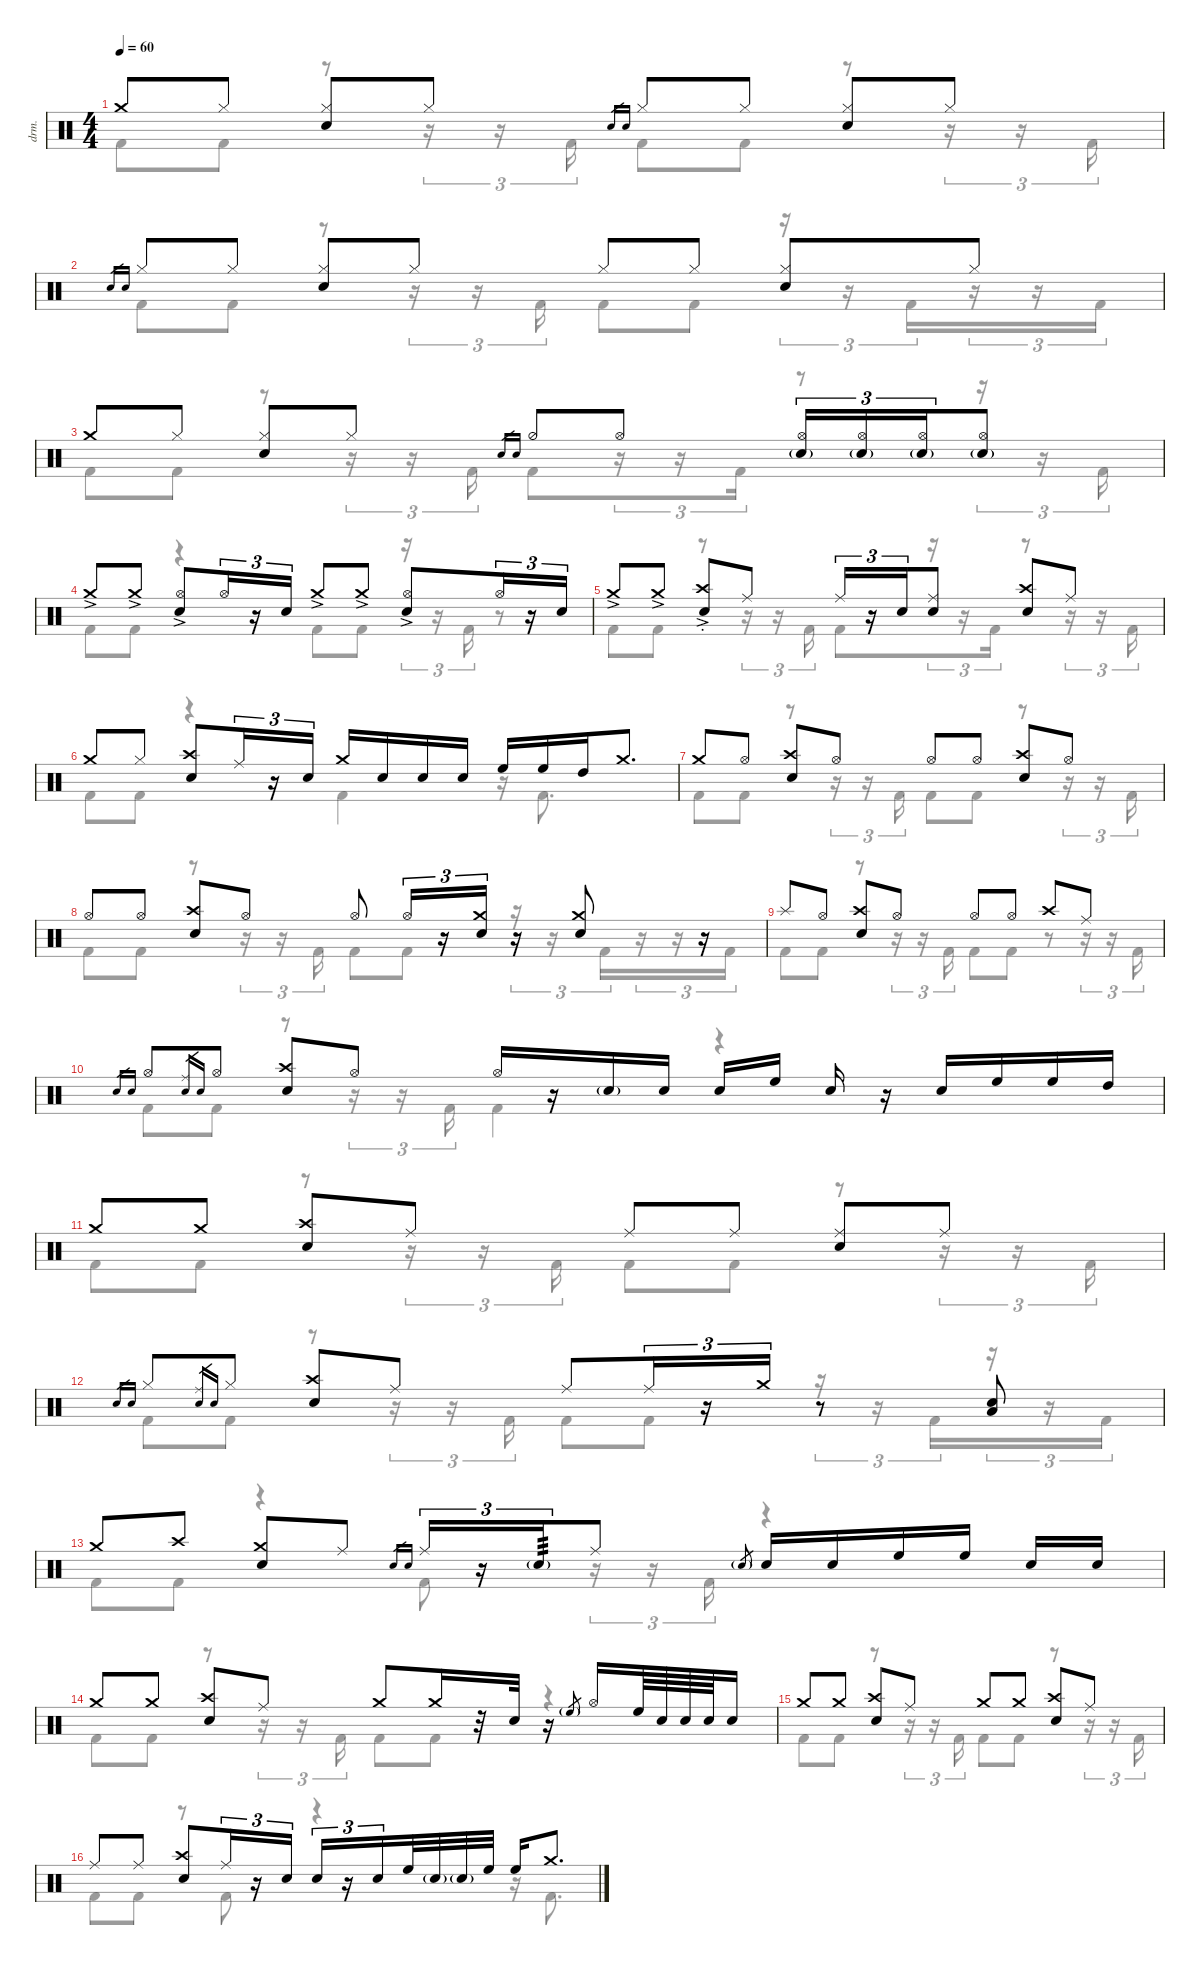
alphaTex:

\defaultSystemsLayout 4
\hideDynamics
\bracketExtendMode nobrackets
\track ("Drums" "drm.") {instrument percussion}
\staff {score}
\articulation defaults
\voice
\ts (4 4)
\tempo 60
\clef neutral
\scale
0.488794
\ks c "Crash medium (hit)".8{dy mf} "Hi-Hat (closed)".8
("Hi-Hat (closed)" "Snare (hit) 2").8 "Hi-Hat (closed)".8 "Snare (hit) 2".16{gr} "Snare (hit) 2".16{gr} "Hi-Hat (closed)".8 "Hi-Hat (closed)".8 ("Hi-Hat (closed)" "Snare (hit) 2").8 "Hi-Hat (closed)".8 |
"Snare (hit) 2".16{gr} "Snare (hit) 2".16{gr} "Hi-Hat (closed)".8 "Hi-Hat (closed)".8 ("Hi-Hat (closed)" "Snare (hit) 2").8 "Hi-Hat (closed)".8 "Hi-Hat (closed)".8 "Hi-Hat (closed)".8 ("Hi-Hat (closed)" "Snare (hit) 2").8 "Hi-Hat (closed)".8 |
"Crash medium (hit)".8 "Hi-Hat (closed)".8 ("Hi-Hat (closed)" "Snare (hit) 2").8 "Hi-Hat (closed)".8 "Snare (hit) 2".16{gr} "Snare (hit) 2".16{gr} "Hi-Hat (half)".8 "Hi-Hat (open)".8 ("Hi-Hat (open)" "Snare (hit) 2"{g}).16{tu (3 2)} ("Hi-Hat (open)" "Snare (hit) 2"{g}).16{tu (3 2)} ("Hi-Hat (open)" "Snare (hit) 2"{g}).16{tu (3 2) beam merge} ("Snare (hit) 2"{g} "Hi-Hat (open)").8 |
"Crash medium (hit)"{ac}.8 "Crash medium (hit)"{ac}.8 ("Hi-Hat (open)" "Snare (hit) 2"{ac}).8{beam merge} "Hi-Hat (open)".16{tu (3 2)} r.16{tu (3 2)} "Snare (hit) 2".16{tu (3 2)} "Crash medium (hit)"{ac}.8 "Crash medium (hit)"{ac}.8 ("Hi-Hat (open)" "Snare (hit) 2"{ac}).8{beam merge} "Hi-Hat (open)".16{tu (3 2)} r.16{tu (3 2)} "Snare (hit) 2".16{tu (3 2)} |
"Crash medium (hit)"{ac}.8 "Crash medium (hit)"{ac}.8 ("Snare (hit) 2"{ac} "Crash high (choke)").8{beam merge} "Ride (middle)".8 "Ride (middle)".16{tu (3 2)} r.16{tu (3 2)} "Snare (hit) 2".16{tu (3 2) beam merge} ("Snare (hit) 2" "Ride (middle)").8 ("Crash high (hit)" "Snare (hit) 2").8 "Ride (middle)".8 |
\scale
0.511205 "Crash medium (hit)".8 "Hi-Hat (closed)".8 ("Crash high (hit)" "Snare (hit) 2").8{beam merge} "Ride (middle)".16{tu (3 2)} r.16{tu (3 2)} "Snare (hit) 2".16{tu (3 2)} "Crash medium (hit)".16 "Snare (hit) 2".16 "Snare (hit) 2".16 "Snare (hit) 2".16 "High Floor Tom (hit)".16 "High Floor Tom (hit)".16 "High Tom (hit)".16 "Crash medium (hit)".8{d} |
\scale
0.488795 "Crash medium (hit)".8 "Hi-Hat (open)".8 ("Crash high (hit)" "Snare (hit) 2").8 "Hi-Hat (open)".8 "Hi-Hat (open)".8 "Hi-Hat (open)".8 ("Crash high (hit)" "Snare (hit) 2").8 "Hi-Hat (open)".8 |
\scale
0.511207 "Hi-Hat (open)".8 "Hi-Hat (open)".8 ("Crash high (hit)" "Snare (hit) 2").8 "Hi-Hat (open)".8 "Hi-Hat (open)".8 "Hi-Hat (open)".16{tu (3 2)} r.16{tu (3 2)} ("Crash medium (hit)" "Snare (hit) 2").16{tu (3 2)} r.16 ("Crash medium (hit)" "Snare (hit) 2").8 r.16 |
\scale
0.488793 "Splash (hit)".8 "Hi-Hat (open)".8 ("Crash high (hit)" "Snare (hit) 2").8 "Hi-Hat (open)".8 "Hi-Hat (open)".8 "Hi-Hat (open)".8 "Crash high (hit)".8 "Ride (middle)".8 |
\scale
0.511205 "Snare (hit) 2".16{gr} "Snare (hit) 2".16{gr} "Hi-Hat (open)".8 ("Snare (hit) 2" "Ride (middle)").16{gr} "Snare (hit) 2".16{gr} "Hi-Hat (open)".8 ("Crash high (hit)" "Snare (hit) 2").8 "Hi-Hat (open)".8 "Hi-Hat (open)".16 r.16 "Snare (hit) 2"{g}.16 "Snare (hit) 2".16 "Snare (hit) 2".16 "High Floor Tom (hit)".16{beam split} "Snare (hit) 2".16 r.16 "Snare (hit) 2".16 "High Floor Tom (hit)".16 "High Floor Tom (hit)".16 "High Tom (hit)".16 |
\scale
0.488795 "Crash medium (hit)".8 "Crash medium (hit)".8 ("Crash high (hit)" "Snare (hit) 2").8 "Ride (middle)".8 "Ride (middle)".8 "Ride (middle)".8 ("Ride (middle)" "Snare (hit) 2").8 "Ride (middle)".8 |
\scale
0.511207 "Snare (hit) 2".16{gr} "Snare (hit) 2".16{gr} "Hi-Hat (closed)".8 ("Snare (hit) 2" "Ride (middle)").16{gr} "Snare (hit) 2".16{gr} "Hi-Hat (closed)".8 ("Crash high (hit)" "Snare (hit) 2").8 "Ride (middle)".8 "Ride (middle)".8{beam merge} "Ride (middle)".16{tu (3 2)} r.16{tu (3 2)} "Crash medium (hit)".16{tu (3 2)} r.8 ("Snare (hit) 2" "Low Tom (hit)").8 |
\scale
0.488793 "Crash medium (hit)".8 "Crash high (hit)".8 ("Crash medium (hit)" "Snare (hit) 2").8 "Ride (middle)".8 "Snare (hit) 2".16{gr} "Snare (hit) 2".16{gr} "Ride (middle)".16{tu (3 2)} r.16{tu (3 2)} "Snare (hit) 2"{g}.16{tu (3 2) tp 3 beam merge} "Ride (middle)".8 "Snare (hit) 2"{g}.8{gr} "Snare (hit) 2".16 "Snare (hit) 2".16 "High Floor Tom (hit)".16 "High Floor Tom (hit)".16 "Snare (hit) 2".16 "Snare (hit) 2".16 |
\scale
0.368199 "Crash medium (hit)".8 "Crash medium (hit)".8 ("Crash high (hit)" "Snare (hit) 2").8 "Ride (middle)".8 "Crash medium (hit)".8 "Crash medium (hit)".16 r.32 "Snare (hit) 2".32 r.16 "High Floor Tom (hit)"{g}.8{gr} "Hi-Hat (open)".16 "High Floor Tom (hit)".64 "Snare (hit) 2".64 "Snare (hit) 2".64 "Snare (hit) 2".64 "Snare (hit) 2".16 |
\scale
0.275373 "Crash medium (hit)".8 "Crash medium (hit)".8 ("Crash high (hit)" "Snare (hit) 2").8 "Ride (middle)".8 "Crash medium (hit)".8 "Crash medium (hit)".8 ("Crash high (hit)" "Snare (hit) 2").8 "Ride (middle)".8 |
\scale
0.356428 "Ride (middle)".8 "Ride (middle)".8 ("Crash high (hit)" "Snare (hit) 2").8{beam merge} "Ride (middle)".16{tu (3 2)} r.16{tu (3 2)} "Snare (hit) 2".16{tu (3 2)} "Snare (hit) 2".16{tu (3 2)} r.16{tu (3 2)} "Snare (hit) 2".16{tu (3 2) beam merge} "High Floor Tom (hit)".32 "Snare (hit) 2"{g}.32 "Snare (hit) 2"{g}.32 "High Floor Tom (hit)".32 "High Floor Tom (hit)".16 "Crash medium (hit)".8{d}
\voice
\clef neutral
\ottava regular
\simile none
\scale
0.488794
\ks c "Kick (hit) 2".8{dy mf} "Kick (hit) 2".8
r.8 r.16{tu (3 2)} r.16{tu (3 2)} "Kick (hit) 2".16{tu (3 2)} "Kick (hit) 2".8 "Kick (hit) 2".8 r.8 r.16{tu (3 2)} r.16{tu (3 2)} "Kick (hit) 2".16{tu (3 2)} |
"Kick (hit) 2".8 "Kick (hit) 2".8 r.8 r.16{tu (3 2)} r.16{tu (3 2)} "Kick (hit) 2".16{tu (3 2)} "Kick (hit) 2".8 "Kick (hit) 2".8 r.16{tu (3 2)} r.16{tu (3 2)} "Kick (hit) 2".16{tu (3 2) beam merge} r.16{tu (3 2) beam merge} r.16{tu (3 2) beam merge} "Kick (hit) 2".16{tu (3 2)} |
"Kick (hit) 2".8 "Kick (hit) 2".8 r.8 r.16{tu (3 2)} r.16{tu (3 2)} "Kick (hit) 2".16{tu (3 2)} "Kick (hit) 2".8{beam merge} r.16{tu (3 2) beam merge} r.16{tu (3 2) beam merge} "Kick (hit) 2".16{tu (3 2)} r.8 r.16{tu (3 2)} r.16{tu (3 2)} "Kick (hit) 2".16{tu (3 2)} |
"Kick (hit) 2".8 "Kick (hit) 2".8 r.4 "Kick (hit) 2".8 "Kick (hit) 2".8 r.16{tu (3 2)} r.16{tu (3 2)} "Kick (hit) 2".16{tu (3 2)} r.8 |
"Kick (hit) 2".8 "Kick (hit) 2".8 r.8 r.16{tu (3 2)} r.16{tu (3 2)} "Kick (hit) 2".16{tu (3 2)} "Kick (hit) 2".8{beam merge} r.16{tu (3 2) beam merge} r.16{tu (3 2) beam merge} "Kick (hit) 2".16{tu (3 2)} r.8 r.16{tu (3 2)} r.16{tu (3 2)} "Kick (hit) 2".16{tu (3 2)} |
\scale
0.511205 "Kick (hit) 2".8 "Kick (hit) 2".8 r.4 "Kick (hit) 2".4 r.16 "Kick (hit) 2".8{d} |
\scale
0.488795 "Kick (hit) 2".8 "Kick (hit) 2".8 r.8 r.16{tu (3 2)} r.16{tu (3 2)} "Kick (hit) 2".16{tu (3 2)} "Kick (hit) 2".8 "Kick (hit) 2".8 r.8 r.16{tu (3 2)} r.16{tu (3 2)} "Kick (hit) 2".16{tu (3 2)} |
\scale
0.511207 "Kick (hit) 2".8 "Kick (hit) 2".8 r.8 r.16{tu (3 2)} r.16{tu (3 2)} "Kick (hit) 2".16{tu (3 2)} "Kick (hit) 2".8 "Kick (hit) 2".8 r.16{tu (3 2)} r.16{tu (3 2)} "Kick (hit) 2".16{tu (3 2) beam merge} r.16{tu (3 2) beam merge} r.16{tu (3 2) beam merge} "Kick (hit) 2".16{tu (3 2)} |
\scale
0.488793 "Kick (hit) 2".8 "Kick (hit) 2".8 r.8 r.16{tu (3 2)} r.16{tu (3 2)} "Kick (hit) 2".16{tu (3 2)} "Kick (hit) 2".8 "Kick (hit) 2".8 r.8 r.16{tu (3 2)} r.16{tu (3 2)} "Kick (hit) 2".16{tu (3 2)} |
\scale
0.511205 "Kick (hit) 2".8 "Kick (hit) 2".8 r.8 r.16{tu (3 2)} r.16{tu (3 2)} "Kick (hit) 2".16{tu (3 2)} "Kick (hit) 2".4 r.4 |
\scale
0.488795 "Kick (hit) 2".8 "Kick (hit) 2".8 r.8 r.16{tu (3 2)} r.16{tu (3 2)} "Kick (hit) 2".16{tu (3 2)} "Kick (hit) 2".8 "Kick (hit) 2".8 r.8 r.16{tu (3 2)} r.16{tu (3 2)} "Kick (hit) 2".16{tu (3 2)} |
\scale
0.511207 "Kick (hit) 2".8 "Kick (hit) 2".8 r.8 r.16{tu (3 2)} r.16{tu (3 2)} "Kick (hit) 2".16{tu (3 2)} "Kick (hit) 2".8 "Kick (hit) 2".8 r.16{tu (3 2)} r.16{tu (3 2)} "Kick (hit) 2".16{tu (3 2) beam merge} r.16{tu (3 2) beam merge} r.16{tu (3 2) beam merge} "Kick (hit) 2".16{tu (3 2)} |
\scale
0.488793 "Kick (hit) 2".8 "Kick (hit) 2".8 r.4 "Kick (hit) 2".8 r.16{tu (3 2)} r.16{tu (3 2)} "Kick (hit) 2".16{tu (3 2)} r.4 |
\scale
0.368199 "Kick (hit) 2".8 "Kick (hit) 2".8 r.8 r.16{tu (3 2)} r.16{tu (3 2)} "Kick (hit) 2".16{tu (3 2)} "Kick (hit) 2".8 "Kick (hit) 2".8 r.4 |
\scale
0.275373 "Kick (hit) 2".8 "Kick (hit) 2".8 r.8 r.16{tu (3 2)} r.16{tu (3 2)} "Kick (hit) 2".16{tu (3 2)} "Kick (hit) 2".8 "Kick (hit) 2".8 r.8 r.16{tu (3 2)} r.16{tu (3 2)} "Kick (hit) 2".16{tu (3 2)} |
\scale
0.356428 "Kick (hit) 2".8 "Kick (hit) 2".8 r.8 "Kick (hit) 2".8 r.4 r.16 "Kick (hit) 2".8{d}
